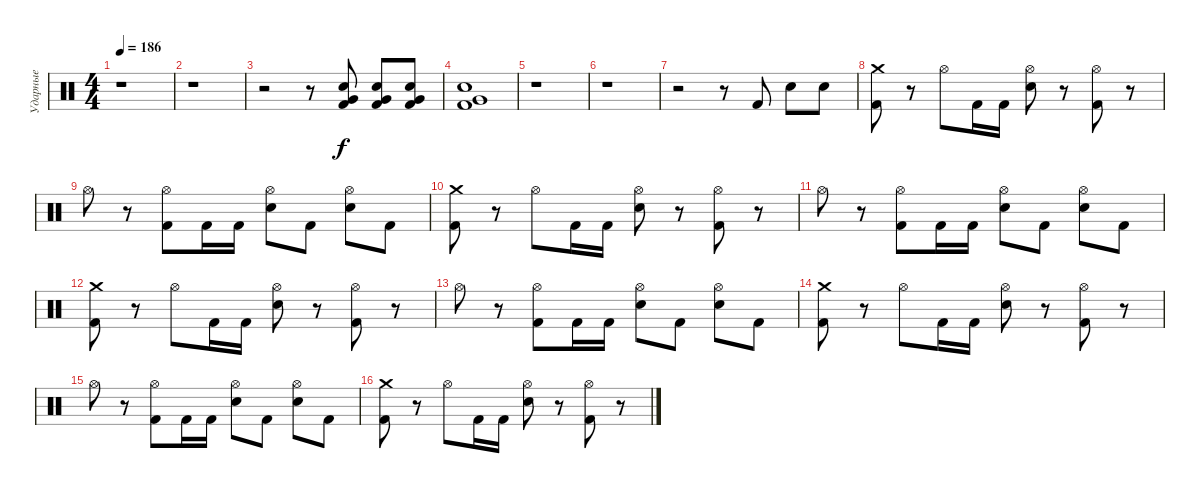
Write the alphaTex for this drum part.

\track ("Ударные" "Ударные") {instrument percussion}
\staff {score}
\articulation defaults
\ts (4 4)
\tempo 186
\clef neutral
\ks c
r.1{dy f} |
r.1 |
r.2 r.8 ("Kick (hit) 2" "Snare (hit) 2" "Very Low Tom (hit)").8 ("Kick (hit) 2" "Snare (hit) 2" "Very Low Tom (hit)").8 ("Kick (hit) 2" "Snare (hit) 2" "Very Low Tom (hit)").8 |
("Kick (hit) 2" "Snare (hit) 2" "Very Low Tom (hit)").1 |
r.1 |
r.1 |
r.2 r.8 "Kick (hit) 2".8 "Snare (hit) 2".8 "Snare (hit) 2".8 |
("Kick (hit) 2" "Crash medium (hit)").8 r.8 "Hi-Hat (open)".8 "Kick (hit) 2".16 "Kick (hit) 2".16 ("Snare (hit) 2" "Hi-Hat (open)").8 r.8 ("Kick (hit) 2" "Hi-Hat (open)").8 r.8 |
"Hi-Hat (open)".8 r.8 ("Kick (hit) 2" "Hi-Hat (open)").8 "Kick (hit) 2".16 "Kick (hit) 2".16 ("Snare (hit) 2" "Hi-Hat (open)").8 "Kick (hit) 2".8 ("Snare (hit) 2" "Hi-Hat (open)").8 "Kick (hit) 2".8 |
("Kick (hit) 2" "Crash medium (hit)").8 r.8 "Hi-Hat (open)".8 "Kick (hit) 2".16 "Kick (hit) 2".16 ("Snare (hit) 2" "Hi-Hat (open)").8 r.8 ("Kick (hit) 2" "Hi-Hat (open)").8 r.8 |
"Hi-Hat (open)".8 r.8 ("Kick (hit) 2" "Hi-Hat (open)").8 "Kick (hit) 2".16 "Kick (hit) 2".16 ("Snare (hit) 2" "Hi-Hat (open)").8 "Kick (hit) 2".8 ("Snare (hit) 2" "Hi-Hat (open)").8 "Kick (hit) 2".8 |
("Kick (hit) 2" "Crash medium (hit)").8 r.8 "Hi-Hat (open)".8 "Kick (hit) 2".16 "Kick (hit) 2".16 ("Snare (hit) 2" "Hi-Hat (open)").8 r.8 ("Kick (hit) 2" "Hi-Hat (open)").8 r.8 |
"Hi-Hat (open)".8 r.8 ("Kick (hit) 2" "Hi-Hat (open)").8 "Kick (hit) 2".16 "Kick (hit) 2".16 ("Snare (hit) 2" "Hi-Hat (open)").8 "Kick (hit) 2".8 ("Snare (hit) 2" "Hi-Hat (open)").8 "Kick (hit) 2".8 |
("Kick (hit) 2" "Crash medium (hit)").8 r.8 "Hi-Hat (open)".8 "Kick (hit) 2".16 "Kick (hit) 2".16 ("Snare (hit) 2" "Hi-Hat (open)").8 r.8 ("Kick (hit) 2" "Hi-Hat (open)").8 r.8 |
"Hi-Hat (open)".8 r.8 ("Kick (hit) 2" "Hi-Hat (open)").8 "Kick (hit) 2".16 "Kick (hit) 2".16 ("Snare (hit) 2" "Hi-Hat (open)").8 "Kick (hit) 2".8 ("Snare (hit) 2" "Hi-Hat (open)").8 "Kick (hit) 2".8 |
("Kick (hit) 2" "Crash medium (hit)").8 r.8 "Hi-Hat (open)".8 "Kick (hit) 2".16 "Kick (hit) 2".16 ("Snare (hit) 2" "Hi-Hat (open)").8 r.8 ("Kick (hit) 2" "Hi-Hat (open)").8 r.8
